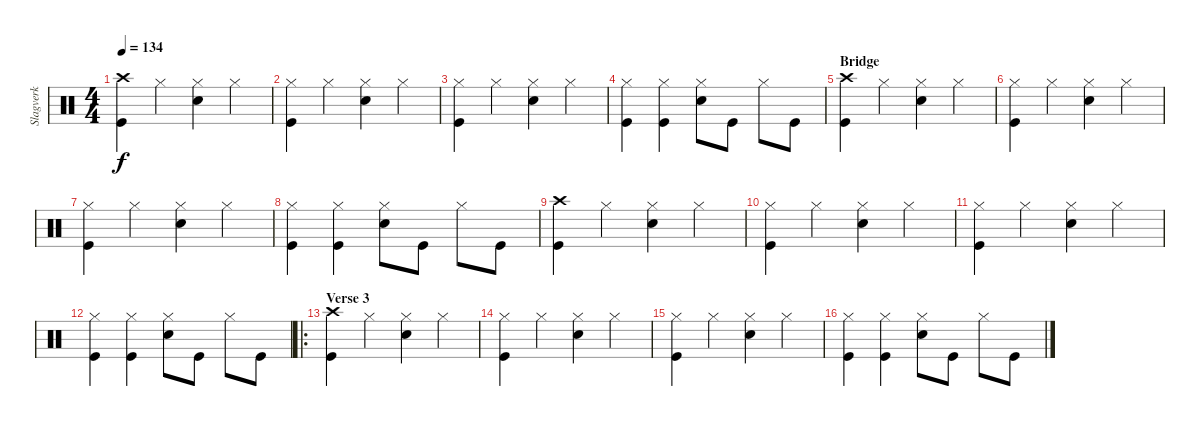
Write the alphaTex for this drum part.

\track ("Slagverk" "Slagverk") {instrument percussion}
\staff {score}
\articulation defaults
\ts (4 4)
\tempo 134
\clef neutral
\ks c
("Crash high (hit)" "Kick (hit)").4{dy f} "Hi-Hat (closed)".4 ("Hi-Hat (closed)" "Snare (hit) 2").4 "Hi-Hat (closed)".4 |
("Hi-Hat (closed)" "Kick (hit)").4 "Hi-Hat (closed)".4 ("Hi-Hat (closed)" "Snare (hit) 2").4 "Hi-Hat (closed)".4 |
("Hi-Hat (closed)" "Kick (hit)").4 "Hi-Hat (closed)".4 ("Hi-Hat (closed)" "Snare (hit) 2").4 "Hi-Hat (closed)".4 |
("Hi-Hat (closed)" "Kick (hit)").4 ("Hi-Hat (closed)" "Kick (hit)").4 ("Hi-Hat (closed)" "Snare (hit) 2").8 "Kick (hit)".8 "Hi-Hat (closed)".8 "Kick (hit)".8 |
\section ("" "Bridge")
("Crash high (hit)" "Kick (hit)").4 "Hi-Hat (closed)".4 ("Hi-Hat (closed)" "Snare (hit) 2").4 "Hi-Hat (closed)".4 |
("Hi-Hat (closed)" "Kick (hit)").4 "Hi-Hat (closed)".4 ("Hi-Hat (closed)" "Snare (hit) 2").4 "Hi-Hat (closed)".4 |
("Hi-Hat (closed)" "Kick (hit)").4 "Hi-Hat (closed)".4 ("Hi-Hat (closed)" "Snare (hit) 2").4 "Hi-Hat (closed)".4 |
("Hi-Hat (closed)" "Kick (hit)").4 ("Hi-Hat (closed)" "Kick (hit)").4 ("Hi-Hat (closed)" "Snare (hit) 2").8 "Kick (hit)".8 "Hi-Hat (closed)".8 "Kick (hit)".8 |
("Crash high (hit)" "Kick (hit)").4 "Hi-Hat (closed)".4 ("Hi-Hat (closed)" "Snare (hit) 2").4 "Hi-Hat (closed)".4 |
("Hi-Hat (closed)" "Kick (hit)").4 "Hi-Hat (closed)".4 ("Hi-Hat (closed)" "Snare (hit) 2").4 "Hi-Hat (closed)".4 |
("Hi-Hat (closed)" "Kick (hit)").4 "Hi-Hat (closed)".4 ("Hi-Hat (closed)" "Snare (hit) 2").4 "Hi-Hat (closed)".4 |
("Hi-Hat (closed)" "Kick (hit)").4 ("Hi-Hat (closed)" "Kick (hit)").4 ("Hi-Hat (closed)" "Snare (hit) 2").8 "Kick (hit)".8 "Hi-Hat (closed)".8 "Kick (hit)".8 |
\ro
\section ("" "Verse 3")
("Crash high (hit)" "Kick (hit)").4 "Hi-Hat (closed)".4 ("Hi-Hat (closed)" "Snare (hit) 2").4 "Hi-Hat (closed)".4 |
("Hi-Hat (closed)" "Kick (hit)").4 "Hi-Hat (closed)".4 ("Hi-Hat (closed)" "Snare (hit) 2").4 "Hi-Hat (closed)".4 |
("Hi-Hat (closed)" "Kick (hit)").4 "Hi-Hat (closed)".4 ("Hi-Hat (closed)" "Snare (hit) 2").4 "Hi-Hat (closed)".4 |
("Hi-Hat (closed)" "Kick (hit)").4 ("Hi-Hat (closed)" "Kick (hit)").4 ("Hi-Hat (closed)" "Snare (hit) 2").8 "Kick (hit)".8 "Hi-Hat (closed)".8 "Kick (hit)".8
